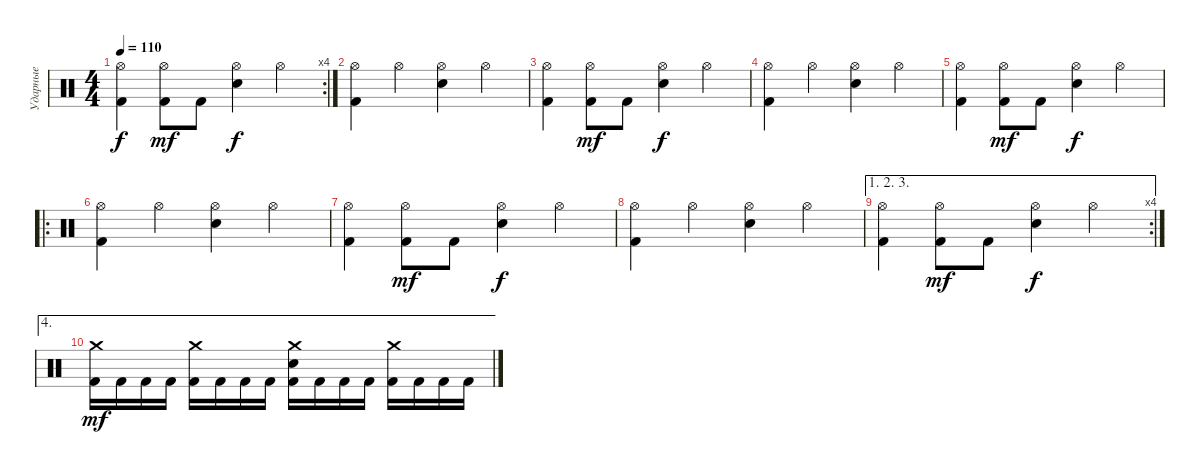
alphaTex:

\track ("Ударные" "Ударные") {instrument percussion}
\staff {score}
\articulation defaults
\rc 4
\ts (4 4)
\tempo 110
\clef neutral
\ks c
("Hi-Hat (open)" "Kick (hit) 2").4{dy f} ("Hi-Hat (open)" "Kick (hit) 2").8{dy mf} "Kick (hit) 2".8 ("Hi-Hat (open)" "Electric Snare (hit)").4{dy f} "Hi-Hat (open)".4 |
("Hi-Hat (open)" "Kick (hit) 2").4 "Hi-Hat (open)".4 ("Hi-Hat (open)" "Electric Snare (hit)").4 "Hi-Hat (open)".4 |
("Hi-Hat (open)" "Kick (hit) 2").4 ("Hi-Hat (open)" "Kick (hit) 2").8{dy mf} "Kick (hit) 2".8 ("Hi-Hat (open)" "Electric Snare (hit)").4{dy f} "Hi-Hat (open)".4 |
("Hi-Hat (open)" "Kick (hit) 2").4 "Hi-Hat (open)".4 ("Hi-Hat (open)" "Electric Snare (hit)").4 "Hi-Hat (open)".4 |
("Hi-Hat (open)" "Kick (hit) 2").4 ("Hi-Hat (open)" "Kick (hit) 2").8{dy mf} "Kick (hit) 2".8 ("Hi-Hat (open)" "Electric Snare (hit)").4{dy f} "Hi-Hat (open)".4 |
\ro
("Hi-Hat (open)" "Kick (hit) 2").4 "Hi-Hat (open)".4 ("Hi-Hat (open)" "Electric Snare (hit)").4 "Hi-Hat (open)".4 |
("Hi-Hat (open)" "Kick (hit) 2").4 ("Hi-Hat (open)" "Kick (hit) 2").8{dy mf} "Kick (hit) 2".8 ("Hi-Hat (open)" "Electric Snare (hit)").4{dy f} "Hi-Hat (open)".4 |
("Hi-Hat (open)" "Kick (hit) 2").4 "Hi-Hat (open)".4 ("Hi-Hat (open)" "Electric Snare (hit)").4 "Hi-Hat (open)".4 |
\ae (1 2 3)
\rc 4
("Hi-Hat (open)" "Kick (hit) 2").4 ("Hi-Hat (open)" "Kick (hit) 2").8{dy mf} "Kick (hit) 2".8 ("Hi-Hat (open)" "Electric Snare (hit)").4{dy f} "Hi-Hat (open)".4 |
\ae 4
("Crash medium (hit)" "Kick (hit) 2").16{dy mf} "Kick (hit) 2".16 "Kick (hit) 2".16 "Kick (hit) 2".16 ("Crash medium (hit)" "Kick (hit) 2").16 "Kick (hit) 2".16 "Kick (hit) 2".16 "Kick (hit) 2".16 ("Crash medium (hit)" "Electric Snare (hit)" "Kick (hit) 2").16 "Kick (hit) 2".16 "Kick (hit) 2".16 "Kick (hit) 2".16 ("Crash medium (hit)" "Kick (hit) 2").16 "Kick (hit) 2".16 "Kick (hit) 2".16 "Kick (hit) 2".16
